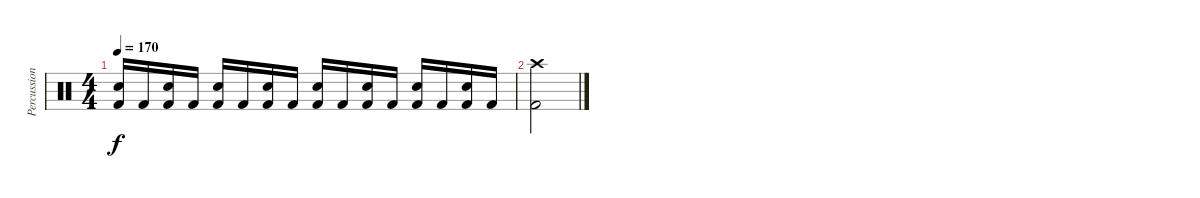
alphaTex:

\track ("Percussion" "Percussion") {instrument percussion}
\staff {score}
\articulation defaults
\ts (4 4)
\tempo 170
\clef neutral
\ks c
("Electric Snare (hit)" "Kick (hit) 2").16{dy f} "Kick (hit) 2".16 ("Electric Snare (hit)" "Kick (hit) 2").16 "Kick (hit) 2".16 ("Electric Snare (hit)" "Kick (hit) 2").16 "Kick (hit) 2".16 ("Electric Snare (hit)" "Kick (hit) 2").16 "Kick (hit) 2".16 ("Electric Snare (hit)" "Kick (hit) 2").16 "Kick (hit) 2".16 ("Electric Snare (hit)" "Kick (hit) 2").16 "Kick (hit) 2".16 ("Electric Snare (hit)" "Kick (hit) 2").16 "Kick (hit) 2".16 ("Electric Snare (hit)" "Kick (hit) 2").16 "Kick (hit) 2".16 |
("Crash high (hit)" "Kick (hit) 2").2
